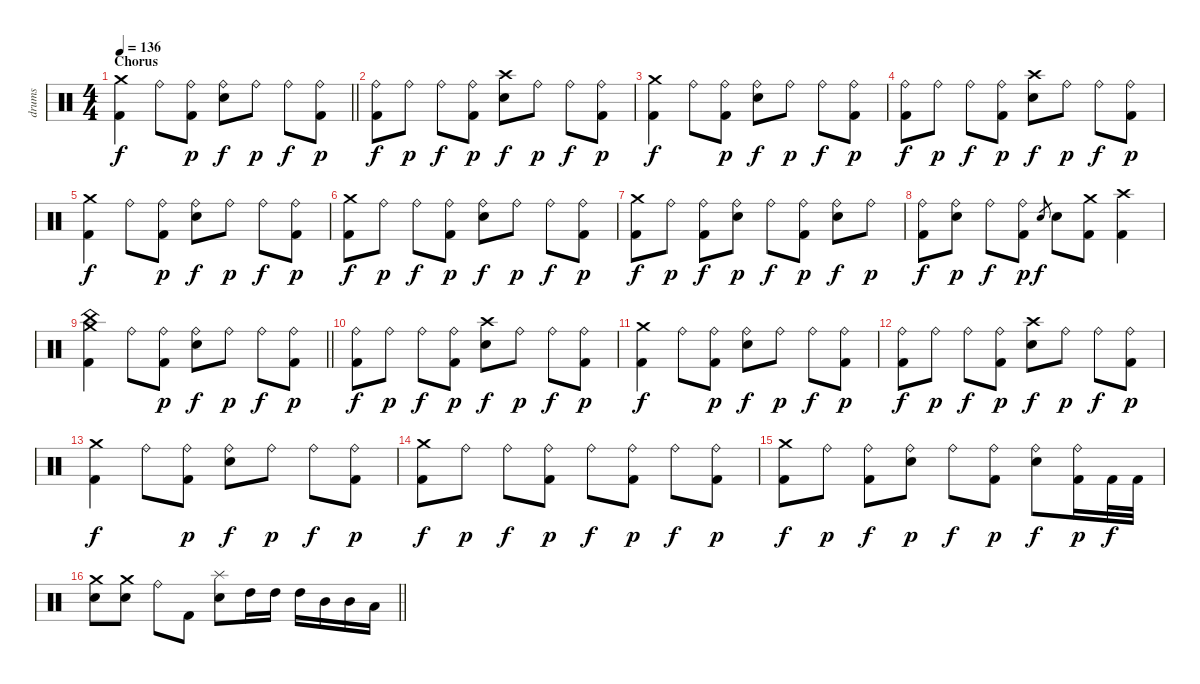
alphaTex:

\track ("drums" "drums") {instrument percussion}
\staff {score}
\articulation defaults
\ts (4 4)
\section ("" "Chorus")
\tempo 136
\clef neutral
\barLineRight lightlight
\ks c
("Crash medium (hit)" "Kick (hit) 2").4{dy f} "Ride (bell)".8 ("Ride (bell)" "Kick (hit) 2").8{dy p} ("Ride (bell)" "Electric Snare (hit)").8{dy f} "Ride (bell)".8{dy p} "Ride (bell)".8{dy f} ("Ride (bell)" "Kick (hit) 2").8{dy p} |
("Ride (bell)" "Kick (hit) 2").8{dy f} "Ride (bell)".8{dy p} "Ride (bell)".8{dy f} ("Ride (bell)" "Kick (hit) 2").8{dy p} ("Crash high (hit)" "Electric Snare (hit)").8{dy f} "Ride (bell)".8{dy p} "Ride (bell)".8{dy f} ("Ride (bell)" "Kick (hit) 2").8{dy p} |
("Crash medium (hit)" "Kick (hit) 2").4{dy f} "Ride (bell)".8 ("Ride (bell)" "Kick (hit) 2").8{dy p} ("Ride (bell)" "Electric Snare (hit)").8{dy f} "Ride (bell)".8{dy p} "Ride (bell)".8{dy f} ("Ride (bell)" "Kick (hit) 2").8{dy p} |
("Ride (bell)" "Kick (hit) 2").8{dy f} "Ride (bell)".8{dy p} "Ride (bell)".8{dy f} ("Ride (bell)" "Kick (hit) 2").8{dy p} ("Crash high (hit)" "Electric Snare (hit)").8{dy f} "Ride (bell)".8{dy p} "Ride (bell)".8{dy f} ("Ride (bell)" "Kick (hit) 2").8{dy p} |
("Crash medium (hit)" "Kick (hit) 2").4{dy f} "Ride (bell)".8 ("Ride (bell)" "Kick (hit) 2").8{dy p} ("Ride (bell)" "Electric Snare (hit)").8{dy f} "Ride (bell)".8{dy p} "Ride (bell)".8{dy f} ("Ride (bell)" "Kick (hit) 2").8{dy p} |
("Crash medium (hit)" "Kick (hit) 2").8{dy f} "Ride (bell)".8{dy p} "Ride (bell)".8{dy f} ("Ride (bell)" "Kick (hit) 2").8{dy p} ("Ride (bell)" "Electric Snare (hit)").8{dy f} "Ride (bell)".8{dy p} "Ride (bell)".8{dy f} ("Ride (bell)" "Kick (hit) 2").8{dy p} |
("Crash medium (hit)" "Kick (hit) 2").8{dy f} "Ride (bell)".8{dy p} ("Ride (bell)" "Kick (hit) 2").8{dy f} ("Ride (bell)" "Electric Snare (hit)").8{dy p} "Ride (bell)".8{dy f} ("Ride (bell)" "Kick (hit) 2").8{dy p} ("Ride (bell)" "Electric Snare (hit)").8{dy f} "Ride (bell)".8{dy p} |
("Ride (bell)" "Kick (hit) 2").8{dy f} ("Ride (bell)" "Electric Snare (hit)").8{dy p} "Ride (bell)".8{dy f} ("Ride (bell)" "Kick (hit) 2").8{dy p} "Electric Snare (hit)".8{gr dy f} "Electric Snare (hit)".8 ("Crash medium (hit)" "Kick (hit) 2").8 ("Crash high (hit)" "Kick (hit) 2").4 |
\barLineRight lightlight
("Crash medium (hit)" "China (hit)" "Kick (hit) 2").4 "Ride (bell)".8 ("Ride (bell)" "Kick (hit) 2").8{dy p} ("Ride (bell)" "Electric Snare (hit)").8{dy f} "Ride (bell)".8{dy p} "Ride (bell)".8{dy f} ("Ride (bell)" "Kick (hit) 2").8{dy p} |
("Ride (bell)" "Kick (hit) 2").8{dy f} "Ride (bell)".8{dy p} "Ride (bell)".8{dy f} ("Ride (bell)" "Kick (hit) 2").8{dy p} ("Crash high (hit)" "Electric Snare (hit)").8{dy f} "Ride (bell)".8{dy p} "Ride (bell)".8{dy f} ("Ride (bell)" "Kick (hit) 2").8{dy p} |
("Crash medium (hit)" "Kick (hit) 2").4{dy f} "Ride (bell)".8 ("Ride (bell)" "Kick (hit) 2").8{dy p} ("Ride (bell)" "Electric Snare (hit)").8{dy f} "Ride (bell)".8{dy p} "Ride (bell)".8{dy f} ("Ride (bell)" "Kick (hit) 2").8{dy p} |
("Ride (bell)" "Kick (hit) 2").8{dy f} "Ride (bell)".8{dy p} "Ride (bell)".8{dy f} ("Ride (bell)" "Kick (hit) 2").8{dy p} ("Crash high (hit)" "Electric Snare (hit)").8{dy f} "Ride (bell)".8{dy p} "Ride (bell)".8{dy f} ("Ride (bell)" "Kick (hit) 2").8{dy p} |
("Crash medium (hit)" "Kick (hit) 2").4{dy f} "Ride (bell)".8 ("Ride (bell)" "Kick (hit) 2").8{dy p} ("Ride (bell)" "Electric Snare (hit)").8{dy f} "Ride (bell)".8{dy p} "Ride (bell)".8{dy f} ("Ride (bell)" "Kick (hit) 2").8{dy p} |
("Crash medium (hit)" "Kick (hit) 2").8{dy f} "Ride (bell)".8{dy p} "Ride (bell)".8{dy f} ("Ride (bell)" "Kick (hit) 2").8{dy p} "Ride (bell)".8{dy f} ("Ride (bell)" "Kick (hit) 2").8{dy p} "Ride (bell)".8{dy f} ("Ride (bell)" "Kick (hit) 2").8{dy p} |
("Crash medium (hit)" "Kick (hit) 2").8{dy f} "Ride (bell)".8{dy p} ("Ride (bell)" "Kick (hit) 2").8{dy f} ("Ride (bell)" "Electric Snare (hit)").8{dy p} "Ride (bell)".8{dy f} ("Ride (bell)" "Kick (hit) 2").8{dy p} ("Ride (bell)" "Electric Snare (hit)").8{dy f} ("Ride (bell)" "Kick (hit) 2").16{dy p} "Kick (hit) 2".32{dy f} "Kick (hit) 2".32 |
\barLineRight lightlight
("Crash medium (hit)" "Electric Snare (hit)").8 ("Crash medium (hit)" "Electric Snare (hit)").8 "Ride (bell)".8 "Kick (hit) 2".8 ("Splash (hit)" "Electric Snare (hit)").8 "High Tom (hit)".16 "High Tom (hit)".16 "High Tom (hit)".16 "Mid Tom (hit)".16 "Mid Tom (hit)".16 "Low Tom (hit)".16
